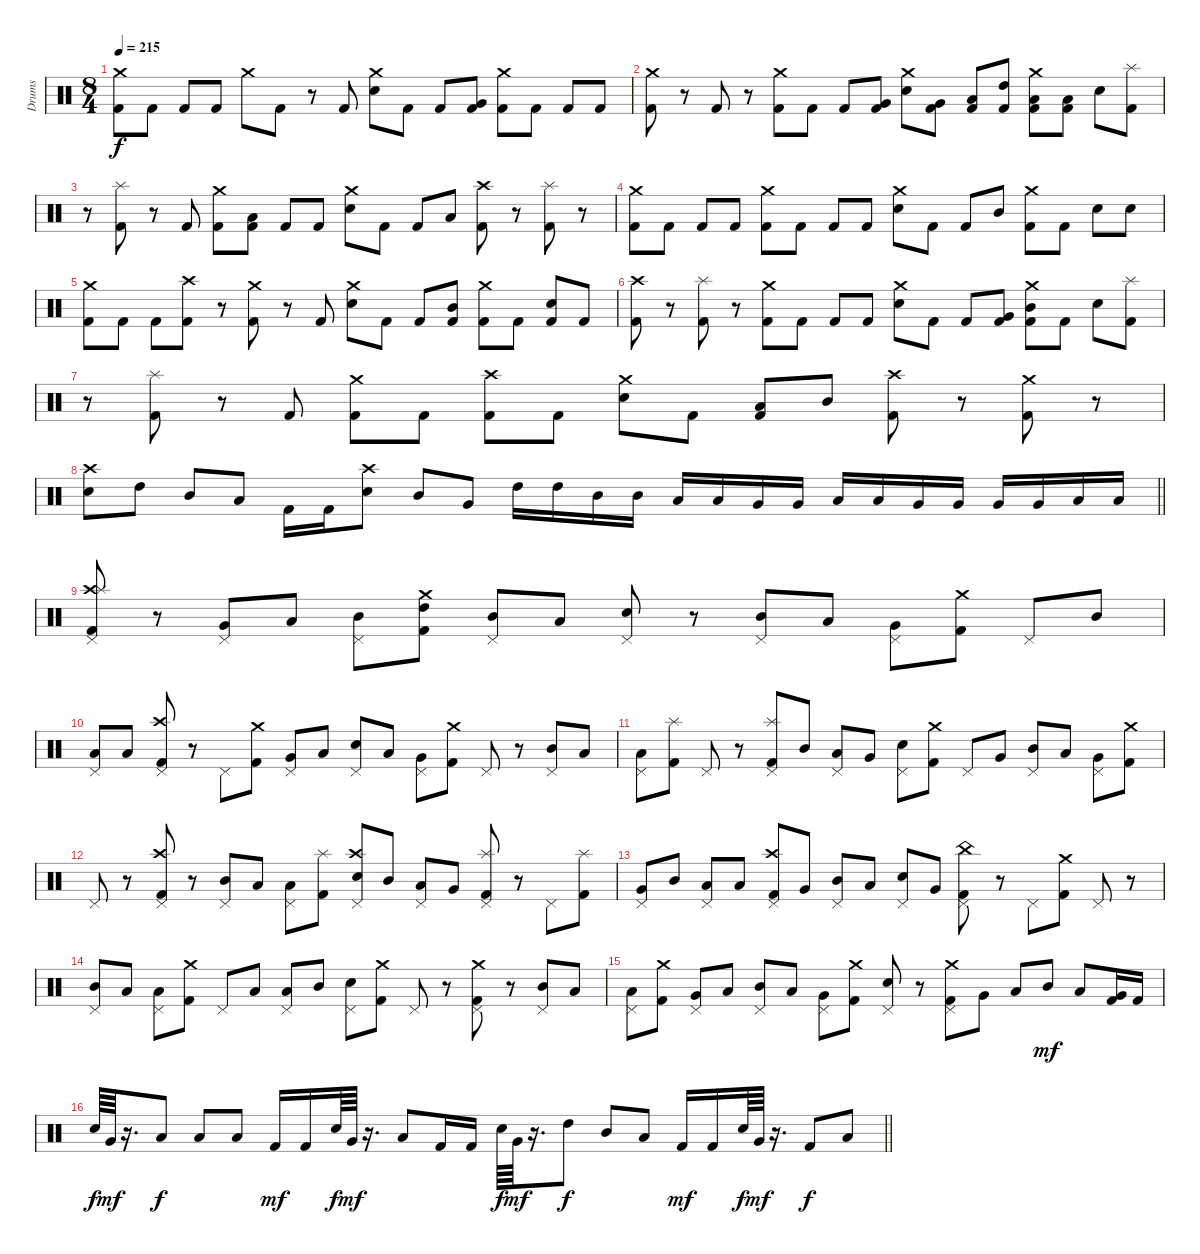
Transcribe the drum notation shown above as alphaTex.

\track ("Drums" "Drums") {instrument percussion}
\staff {score}
\articulation defaults
\ts (8 4)
\tempo 215
\clef neutral
\ks c
("Crash medium (hit)" "Kick (hit) 2").8{dy f} "Kick (hit) 2".8 "Kick (hit) 2".8 "Kick (hit) 2".8 "Crash medium (hit)".8 "Kick (hit) 2".8 r.8 "Kick (hit) 2".8 ("Crash medium (hit)" "Electric Snare (hit)").8 "Kick (hit) 2".8 "Kick (hit) 2".8 ("Very Low Tom (hit)" "Kick (hit) 2").8 ("Crash medium (hit)" "Kick (hit) 2").8 "Kick (hit) 2".8 "Kick (hit) 2".8 "Kick (hit) 2".8 |
("Crash medium (hit)" "Kick (hit) 2").8 r.8 "Kick (hit) 2".8 r.8 ("Crash medium (hit)" "Kick (hit) 2").8 "Kick (hit) 2".8 "Kick (hit) 2".8 ("Very Low Tom (hit)" "Kick (hit) 2").8 ("Crash medium (hit)" "Electric Snare (hit)").8 ("Very Low Tom (hit)" "Kick (hit) 2").8 ("Low Tom (hit)" "Kick (hit) 2").8 ("High Tom (hit)" "Kick (hit) 2").8 ("Crash medium (hit)" "Low Tom (hit)" "Kick (hit) 2").8 ("Low Floor Tom (hit)" "Kick (hit) 2").8 "Electric Snare (hit)".8 ("Splash (hit)" "Kick (hit) 2").8 |
r.8 ("Splash (hit)" "Kick (hit) 2").8 r.8 "Kick (hit) 2".8 ("Crash medium (hit)" "Kick (hit) 2").8 ("Low Tom (hit)" "Kick (hit) 2").8 "Kick (hit) 2".8 "Kick (hit) 2".8 ("Crash medium (hit)" "Electric Snare (hit)").8 "Kick (hit) 2".8 "Kick (hit) 2".8 "Low Tom (hit)".8 ("Crash high (hit)" "Kick (hit) 2").8 r.8 ("Splash (hit)" "Kick (hit) 2").8 r.8 |
("Crash medium (hit)" "Kick (hit) 2").8 "Kick (hit) 2".8 "Kick (hit) 2".8 "Kick (hit) 2".8 ("Crash medium (hit)" "Kick (hit) 2").8 "Kick (hit) 2".8 "Kick (hit) 2".8 "Kick (hit) 2".8 ("Crash medium (hit)" "Electric Snare (hit)").8 "Kick (hit) 2".8 "Kick (hit) 2".8 "Mid Tom (hit)".8 ("Crash medium (hit)" "Kick (hit) 2").8 "Kick (hit) 2".8 "Electric Snare (hit)".8 "Electric Snare (hit)".8 |
("Crash medium (hit)" "Kick (hit) 2").8 "Kick (hit) 2".8 "Kick (hit) 2".8 ("Crash high (hit)" "Kick (hit) 2").8 r.8 ("Crash medium (hit)" "Kick (hit) 2").8 r.8 "Kick (hit) 2".8 ("Crash medium (hit)" "Electric Snare (hit)").8 "Kick (hit) 2".8 "Kick (hit) 2".8 ("Mid Tom (hit)" "Kick (hit) 2").8 ("Crash medium (hit)" "Kick (hit) 2").8 "Kick (hit) 2".8 ("Electric Snare (hit)" "Kick (hit) 2").8 "Kick (hit) 2".8 |
("Crash high (hit)" "Kick (hit) 2").8 r.8 ("Splash (hit)" "Kick (hit) 2").8 r.8 ("Crash medium (hit)" "Kick (hit) 2").8 "Kick (hit) 2".8 "Kick (hit) 2".8 "Kick (hit) 2".8 ("Crash medium (hit)" "Electric Snare (hit)").8 "Kick (hit) 2".8 "Kick (hit) 2".8 ("Very Low Tom (hit)" "Kick (hit) 2").8 ("Crash medium (hit)" "Mid Tom (hit)" "Kick (hit) 2").8 "Kick (hit) 2".8 "Electric Snare (hit)".8 ("Splash (hit)" "Kick (hit) 2").8 |
r.8 ("Splash (hit)" "Kick (hit) 2").8 r.8 "Kick (hit) 2".8 ("Crash medium (hit)" "Kick (hit) 2").8 "Kick (hit) 2".8 ("Crash high (hit)" "Kick (hit) 2").8 "Kick (hit) 2".8 ("Crash medium (hit)" "Electric Snare (hit)").8 "Kick (hit) 2".8 ("Low Tom (hit)" "Kick (hit) 2").8 "Mid Tom (hit)".8 ("Crash high (hit)" "Kick (hit) 2").8 r.8 ("Crash medium (hit)" "Kick (hit) 2").8 r.8 |
\barLineRight lightlight
("Crash high (hit)" "Electric Snare (hit)").8 "High Tom (hit)".8 "Mid Tom (hit)".8 "Low Tom (hit)".8 "Kick (hit) 2".16 "Kick (hit) 2".16 ("Crash high (hit)" "Electric Snare (hit)").8 "Mid Tom (hit)".8 "Very Low Tom (hit)".8 "High Tom (hit)".16 "High Tom (hit)".16 "Mid Tom (hit)".16 "Mid Tom (hit)".16 "Low Tom (hit)".16 "Low Tom (hit)".16 "Very Low Tom (hit)".16 "Very Low Tom (hit)".16 "Low Tom (hit)".16 "Low Tom (hit)".16 "Very Low Tom (hit)".16 "Very Low Tom (hit)".16 "Very Low Tom (hit)".16 "Very Low Tom (hit)".16 "Low Floor Tom (hit)".16 "Low Floor Tom (hit)".16 |
\section ("" "")
("Crash high (hit)" "Splash (hit)" "Pedal Hi-Hat (hit)" "Kick (hit) 2").8 r.8 ("Pedal Hi-Hat (hit)" "Very Low Tom (hit)").8 "Low Tom (hit)".8 ("Mid Tom (hit)" "Pedal Hi-Hat (hit)").8 ("Crash medium (hit)" "High Tom (hit)" "Kick (hit) 2").8 ("Mid Tom (hit)" "Pedal Hi-Hat (hit)").8 "Low Tom (hit)".8 ("Pedal Hi-Hat (hit)" "Electric Snare (hit)").8 r.8 ("Mid Tom (hit)" "Pedal Hi-Hat (hit)").8 "Low Tom (hit)".8 ("Pedal Hi-Hat (hit)" "Very Low Tom (hit)").8 ("Crash medium (hit)" "Kick (hit) 2").8 "Pedal Hi-Hat (hit)".8 "Mid Tom (hit)".8 |
("Low Tom (hit)" "Pedal Hi-Hat (hit)").8 "Low Floor Tom (hit)".8 ("Crash high (hit)" "Pedal Hi-Hat (hit)" "Kick (hit) 2").8 r.8 "Pedal Hi-Hat (hit)".8 ("Crash medium (hit)" "Kick (hit) 2").8 ("Pedal Hi-Hat (hit)" "Very Low Tom (hit)").8 "Low Tom (hit)".8 ("Pedal Hi-Hat (hit)" "Electric Snare (hit)").8 "Low Tom (hit)".8 ("Pedal Hi-Hat (hit)" "Very Low Tom (hit)").8 ("Crash medium (hit)" "Kick (hit) 2").8 "Pedal Hi-Hat (hit)".8 r.8 ("Mid Tom (hit)" "Pedal Hi-Hat (hit)").8 "Low Tom (hit)".8 |
("Pedal Hi-Hat (hit)" "Low Floor Tom (hit)").8 ("Splash (hit)" "Kick (hit) 2").8 "Pedal Hi-Hat (hit)".8 r.8 ("Splash (hit)" "Pedal Hi-Hat (hit)" "Kick (hit) 2").8 "Mid Tom (hit)".8 ("Low Tom (hit)" "Pedal Hi-Hat (hit)").8 "Very Low Tom (hit)".8 ("Pedal Hi-Hat (hit)" "Electric Snare (hit)").8 ("Crash medium (hit)" "Kick (hit) 2").8 "Pedal Hi-Hat (hit)".8 "Very Low Tom (hit)".8 ("Mid Tom (hit)" "Pedal Hi-Hat (hit)").8 "Low Tom (hit)".8 ("Pedal Hi-Hat (hit)" "Very Low Tom (hit)").8 ("Crash medium (hit)" "Kick (hit) 2").8 |
"Pedal Hi-Hat (hit)".8 r.8 ("Crash high (hit)" "Pedal Hi-Hat (hit)" "Kick (hit) 2").8 r.8 ("Mid Tom (hit)" "Pedal Hi-Hat (hit)").8 "Low Tom (hit)".8 ("Pedal Hi-Hat (hit)" "Low Floor Tom (hit)").8 ("Splash (hit)" "Kick (hit) 2").8 ("Crash high (hit)" "Pedal Hi-Hat (hit)" "Electric Snare (hit)").8 "Mid Tom (hit)".8 ("Low Tom (hit)" "Pedal Hi-Hat (hit)").8 "Very Low Tom (hit)".8 ("Splash (hit)" "Pedal Hi-Hat (hit)" "Kick (hit) 2").8 r.8 "Pedal Hi-Hat (hit)".8 ("Splash (hit)" "Kick (hit) 2").8 |
("Pedal Hi-Hat (hit)" "Very Low Tom (hit)").8 "Mid Tom (hit)".8 ("Low Tom (hit)" "Pedal Hi-Hat (hit)").8 "Low Floor Tom (hit)".8 ("Crash high (hit)" "Pedal Hi-Hat (hit)" "Kick (hit) 2").8 "Very Low Tom (hit)".8 ("Mid Tom (hit)" "Pedal Hi-Hat (hit)").8 "Low Tom (hit)".8 ("Pedal Hi-Hat (hit)" "Electric Snare (hit)").8 "Very Low Tom (hit)".8 ("China (hit)" "Pedal Hi-Hat (hit)" "Kick (hit) 2").8 r.8 "Pedal Hi-Hat (hit)".8 ("Crash medium (hit)" "Kick (hit) 2").8 "Pedal Hi-Hat (hit)".8 r.8 |
("Mid Tom (hit)" "Pedal Hi-Hat (hit)").8 "Low Tom (hit)".8 ("Pedal Hi-Hat (hit)" "Low Floor Tom (hit)").8 ("Crash medium (hit)" "Kick (hit) 2").8 "Pedal Hi-Hat (hit)".8 "Low Floor Tom (hit)".8 ("Low Tom (hit)" "Pedal Hi-Hat (hit)").8 "Mid Tom (hit)".8 ("Pedal Hi-Hat (hit)" "Electric Snare (hit)").8 ("Crash medium (hit)" "Kick (hit) 2").8 "Pedal Hi-Hat (hit)".8 r.8 ("Crash medium (hit)" "Pedal Hi-Hat (hit)" "Kick (hit) 2").8 r.8 ("Mid Tom (hit)" "Pedal Hi-Hat (hit)").8 "Low Tom (hit)".8 |
("Pedal Hi-Hat (hit)" "Low Floor Tom (hit)").8 ("Crash medium (hit)" "Kick (hit) 2").8 ("Pedal Hi-Hat (hit)" "Very Low Tom (hit)").8 "Low Tom (hit)".8 ("Mid Tom (hit)" "Pedal Hi-Hat (hit)").8 "Low Tom (hit)".8 ("Pedal Hi-Hat (hit)" "Very Low Tom (hit)").8 ("Crash medium (hit)" "Kick (hit) 2").8 ("Pedal Hi-Hat (hit)" "Electric Snare (hit)").8 r.8 ("Crash medium (hit)" "Pedal Hi-Hat (hit)" "Kick (hit) 2").8 "Very Low Tom (hit)".8 "Low Tom (hit)".8 "Mid Tom (hit)".8{dy mf} "Low Tom (hit)".8 ("Very Low Tom (hit)" "Kick (hit) 2").16 "Kick (hit) 2".16 |
\barLineRight lightlight "Electric Snare (hit)".64{dy f} "Very Low Tom (hit)".64{dy mf}
r.16{d} "Low Floor Tom (hit)".8{dy f} "Low Floor Tom (hit)".8 "Low Floor Tom (hit)".8 "Kick (hit) 2".16{dy mf} "Kick (hit) 2".16 "Electric Snare (hit)".64{dy f} "Very Low Tom (hit)".64{dy mf} r.16{d} "Low Tom (hit)".8 "Kick (hit) 2".16 "Kick (hit) 2".16 "Electric Snare (hit)".64{dy f} "Very Low Tom (hit)".64{dy mf} r.16{d} "High Tom (hit)".8{dy f} "Mid Tom (hit)".8 "Low Floor Tom (hit)".8 "Kick (hit) 2".16{dy mf} "Kick (hit) 2".16 "Electric Snare (hit)".64{dy f} "Very Low Tom (hit)".64{dy mf} r.16{d} "Kick (hit) 2".8{dy f} "Low Tom (hit)".8
